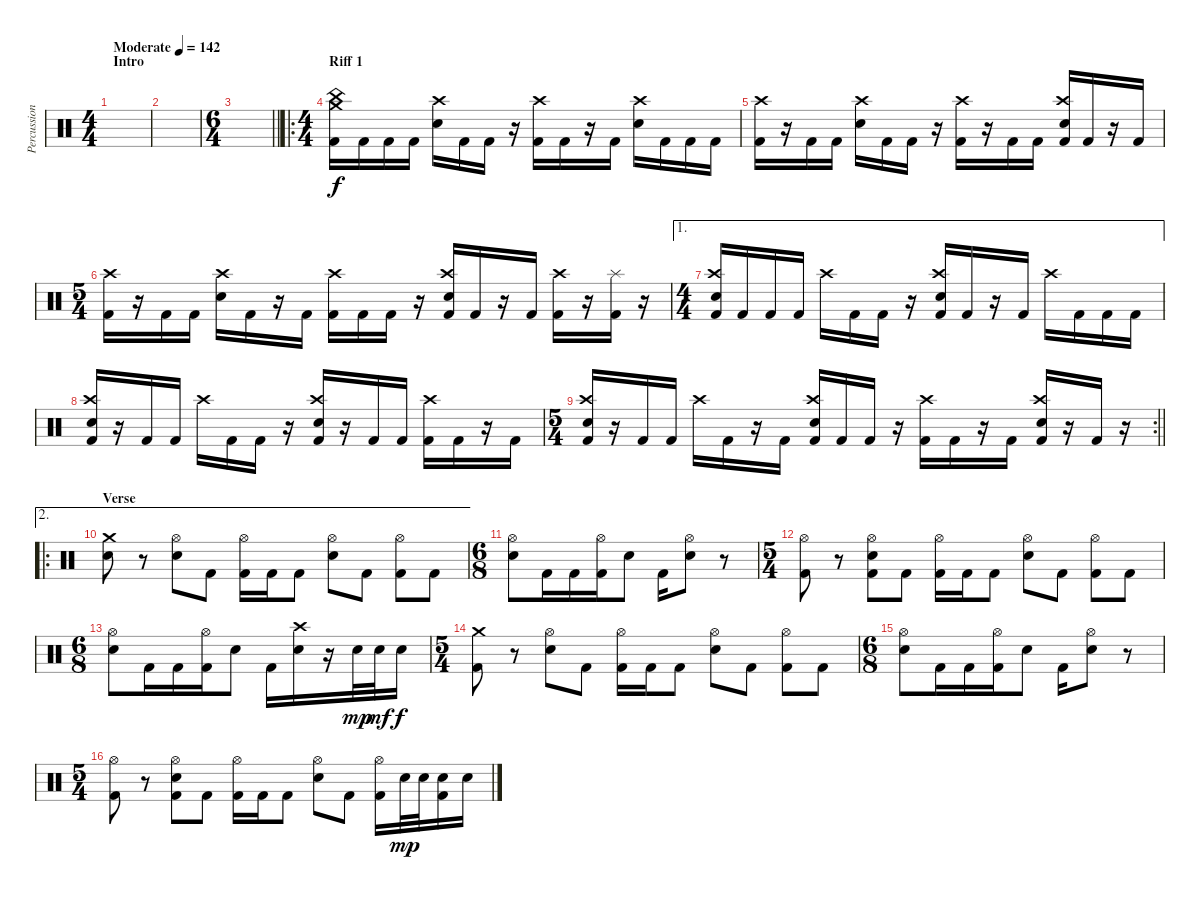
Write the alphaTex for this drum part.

\track ("Percussions" "Percussion") {instrument percussion}
\staff {score}
\articulation defaults
\ts (4 4)
\section ("" "Intro")
\tempo (142 "Moderate")
\clef neutral
\ks c
|
|
\ts (6 4)
\barLineRight lightlight
|
\ro
\ts (4 4)
\section ("" "Riff 1")
("Crash medium (hit)" "China (hit)" "Kick (hit) 2").16 "Kick (hit) 2".16 "Kick (hit) 2".16 "Kick (hit) 2".16 ("Crash high (hit)" "Electric Snare (hit)").16 "Kick (hit) 2".16 "Kick (hit) 2".16 r.16 ("Crash high (hit)" "Kick (hit) 2").16 "Kick (hit) 2".16 r.16 "Kick (hit) 2".16 ("Crash high (hit)" "Electric Snare (hit)").16 "Kick (hit) 2".16 "Kick (hit) 2".16 "Kick (hit) 2".16 |
("Crash high (hit)" "Kick (hit) 2").16 r.16 "Kick (hit) 2".16 "Kick (hit) 2".16 ("Crash high (hit)" "Electric Snare (hit)").16 "Kick (hit) 2".16 "Kick (hit) 2".16 r.16 ("Crash high (hit)" "Kick (hit) 2").16 r.16 "Kick (hit) 2".16 "Kick (hit) 2".16 ("Crash high (hit)" "Electric Snare (hit)" "Kick (hit) 2").16 "Kick (hit) 2".16 r.16 "Kick (hit) 2".16 |
\ts (5 4)
("Crash high (hit)" "Kick (hit) 2").16 r.16 "Kick (hit) 2".16 "Kick (hit) 2".16 ("Crash high (hit)" "Electric Snare (hit)").16 "Kick (hit) 2".16 r.16 "Kick (hit) 2".16 ("Crash high (hit)" "Kick (hit) 2").16 "Kick (hit) 2".16 "Kick (hit) 2".16 r.16 ("Crash high (hit)" "Electric Snare (hit)" "Kick (hit) 2").16 "Kick (hit) 2".16 r.16 "Kick (hit) 2".16 ("Crash high (hit)" "Kick (hit) 2").16 r.16 ("Splash (hit)" "Kick (hit) 2").16 r.16 |
\ae 1
\ts (4 4)
("Crash high (hit)" "Electric Snare (hit)" "Kick (hit) 2").16 "Kick (hit) 2".16 "Kick (hit) 2".16 "Kick (hit) 2".16 "Crash high (hit)".16 "Kick (hit) 2".16 "Kick (hit) 2".16 r.16 ("Crash high (hit)" "Electric Snare (hit)" "Kick (hit) 2").16 "Kick (hit) 2".16 r.16 "Kick (hit) 2".16 "Crash high (hit)".16 "Kick (hit) 2".16 "Kick (hit) 2".16 "Kick (hit) 2".16 |
("Crash high (hit)" "Electric Snare (hit)" "Kick (hit) 2").16 r.16 "Kick (hit) 2".16 "Kick (hit) 2".16 "Crash high (hit)".16 "Kick (hit) 2".16 "Kick (hit) 2".16 r.16 ("Crash high (hit)" "Electric Snare (hit)" "Kick (hit) 2").16 r.16 "Kick (hit) 2".16 "Kick (hit) 2".16 ("Crash high (hit)" "Kick (hit) 2").16 "Kick (hit) 2".16 r.16 "Kick (hit) 2".16 |
\rc 2
\ts (5 4)
\barLineRight lightlight
("Crash high (hit)" "Electric Snare (hit)" "Kick (hit) 2").16 r.16 "Kick (hit) 2".16 "Kick (hit) 2".16 "Crash high (hit)".16 "Kick (hit) 2".16 r.16 "Kick (hit) 2".16 ("Crash high (hit)" "Electric Snare (hit)" "Kick (hit) 2").16 "Kick (hit) 2".16 "Kick (hit) 2".16 r.16 ("Crash high (hit)" "Kick (hit) 2").16 "Kick (hit) 2".16 r.16 "Kick (hit) 2".16 ("Crash high (hit)" "Electric Snare (hit)" "Kick (hit) 2").16 r.16 "Kick (hit) 2".16 r.16 |
\ae 2
\ro
\section ("" "Verse")
("Crash medium (hit)" "Electric Snare (hit)").8 r.8 ("Hi-Hat (open)" "Electric Snare (hit)").8 "Kick (hit) 2".8 ("Hi-Hat (open)" "Kick (hit) 2").16 "Kick (hit) 2".16 "Kick (hit) 2".8 ("Hi-Hat (open)" "Electric Snare (hit)").8 "Kick (hit) 2".8 ("Hi-Hat (open)" "Kick (hit) 2").8 "Kick (hit) 2".8 |
\ts (6 8)
("Hi-Hat (open)" "Electric Snare (hit)").8 "Kick (hit) 2".16 "Kick (hit) 2".16 ("Hi-Hat (open)" "Kick (hit) 2").16 "Electric Snare (hit)".8 "Kick (hit) 2".16 ("Hi-Hat (open)" "Electric Snare (hit)").8 r.8 |
\ts (5 4)
("Hi-Hat (open)" "Kick (hit) 2").8 r.8 ("Hi-Hat (open)" "Electric Snare (hit)" "Kick (hit) 2").8 "Kick (hit) 2".8 ("Hi-Hat (open)" "Kick (hit) 2").16 "Kick (hit) 2".16 "Kick (hit) 2".8 ("Hi-Hat (open)" "Electric Snare (hit)").8 "Kick (hit) 2".8 ("Hi-Hat (open)" "Kick (hit) 2").8 "Kick (hit) 2".8 |
\ts (6 8)
("Hi-Hat (open)" "Electric Snare (hit)").8 "Kick (hit) 2".16 "Kick (hit) 2".16 ("Hi-Hat (open)" "Kick (hit) 2").16 "Electric Snare (hit)".8 "Kick (hit) 2".16 ("Crash high (hit)" "Electric Snare (hit)").16 r.16 "Electric Snare (hit)".32{dy mp} "Electric Snare (hit)".32{dy mf} "Electric Snare (hit)".16{dy f} |
\ts (5 4)
("Crash medium (hit)" "Kick (hit) 2").8 r.8 ("Hi-Hat (open)" "Electric Snare (hit)").8 "Kick (hit) 2".8 ("Hi-Hat (open)" "Kick (hit) 2").16 "Kick (hit) 2".16 "Kick (hit) 2".8 ("Hi-Hat (open)" "Electric Snare (hit)").8 "Kick (hit) 2".8 ("Hi-Hat (open)" "Kick (hit) 2").8 "Kick (hit) 2".8 |
\ts (6 8)
("Hi-Hat (open)" "Electric Snare (hit)").8 "Kick (hit) 2".16 "Kick (hit) 2".16 ("Hi-Hat (open)" "Kick (hit) 2").16 "Electric Snare (hit)".8 "Kick (hit) 2".16 ("Hi-Hat (open)" "Electric Snare (hit)").8 r.8 |
\ts (5 4)
("Hi-Hat (open)" "Kick (hit) 2").8 r.8 ("Hi-Hat (open)" "Electric Snare (hit)" "Kick (hit) 2").8 "Kick (hit) 2".8 ("Hi-Hat (open)" "Kick (hit) 2").16 "Kick (hit) 2".16 "Kick (hit) 2".8 ("Hi-Hat (open)" "Electric Snare (hit)").8 "Kick (hit) 2".8 ("Hi-Hat (open)" "Kick (hit) 2").16 "Electric Snare (hit)".32{dy mp} "Electric Snare (hit)".32 ("Electric Snare (hit)" "Kick (hit) 2").16 "Electric Snare (hit)".16
